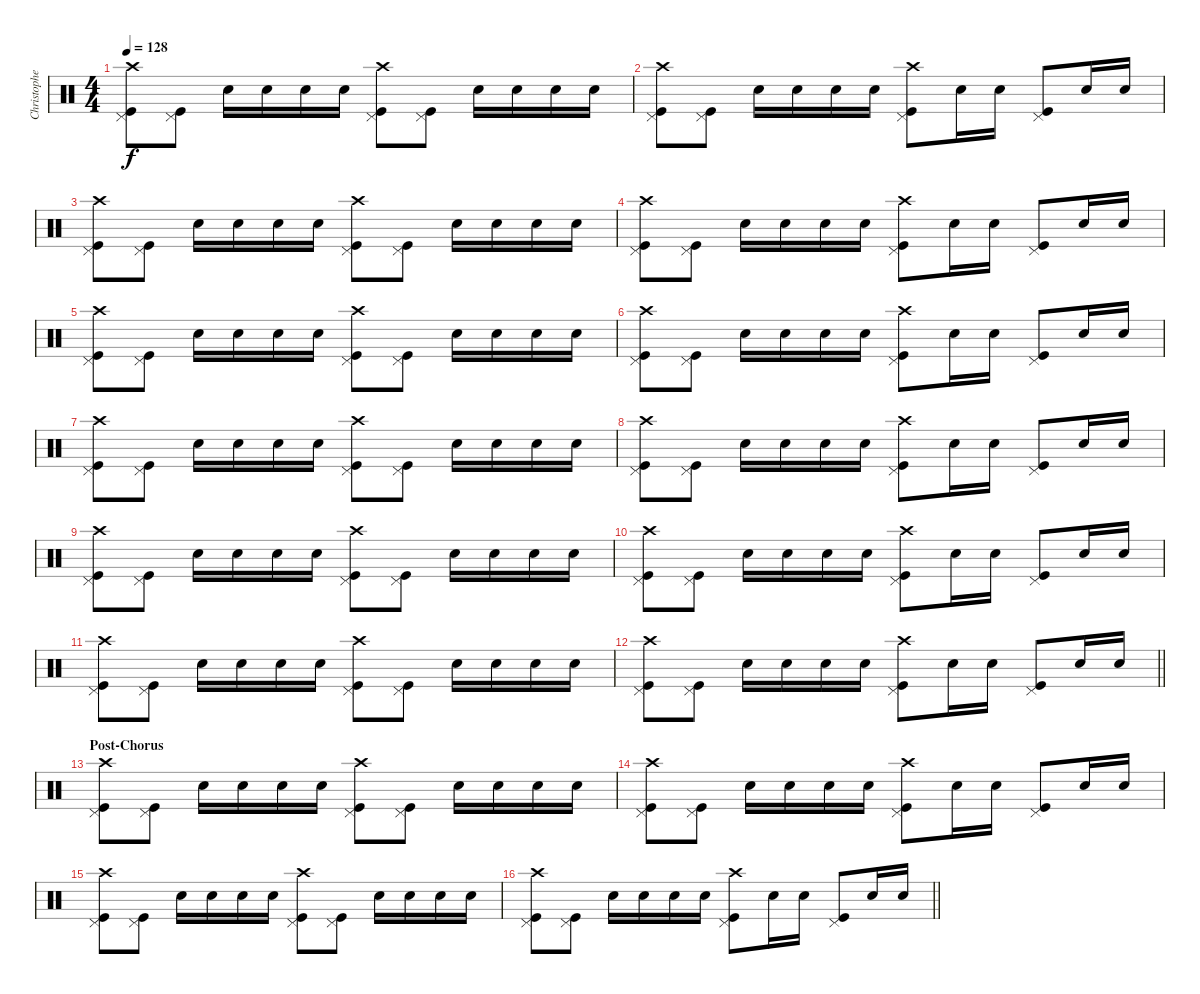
\track ("Christopher - Drums" "Christophe") {instrument percussion}
\staff {score}
\articulation defaults
\ts (4 4)
\tempo 128
\clef neutral
\ks c
("Crash high (hit)" "Pedal Hi-Hat (hit)" "Kick (hit)").8{dy f} ("Pedal Hi-Hat (hit)" "Kick (hit)").8 "Snare (hit) 2".16 "Snare (hit) 2".16 "Snare (hit) 2".16 "Snare (hit) 2".16 ("Crash high (hit)" "Pedal Hi-Hat (hit)" "Kick (hit)").8 ("Pedal Hi-Hat (hit)" "Kick (hit)").8 "Snare (hit) 2".16 "Snare (hit) 2".16 "Snare (hit) 2".16 "Snare (hit) 2".16 |
("Crash high (hit)" "Pedal Hi-Hat (hit)" "Kick (hit)").8 ("Pedal Hi-Hat (hit)" "Kick (hit)").8 "Snare (hit) 2".16 "Snare (hit) 2".16 "Snare (hit) 2".16 "Snare (hit) 2".16 ("Crash high (hit)" "Pedal Hi-Hat (hit)" "Kick (hit)").8 "Snare (hit) 2".16 "Snare (hit) 2".16 ("Pedal Hi-Hat (hit)" "Kick (hit)").8 "Snare (hit) 2".16 "Snare (hit) 2".16 |
("Crash high (hit)" "Pedal Hi-Hat (hit)" "Kick (hit)").8 ("Pedal Hi-Hat (hit)" "Kick (hit)").8 "Snare (hit) 2".16 "Snare (hit) 2".16 "Snare (hit) 2".16 "Snare (hit) 2".16 ("Crash high (hit)" "Pedal Hi-Hat (hit)" "Kick (hit)").8 ("Pedal Hi-Hat (hit)" "Kick (hit)").8 "Snare (hit) 2".16 "Snare (hit) 2".16 "Snare (hit) 2".16 "Snare (hit) 2".16 |
("Crash high (hit)" "Pedal Hi-Hat (hit)" "Kick (hit)").8 ("Pedal Hi-Hat (hit)" "Kick (hit)").8 "Snare (hit) 2".16 "Snare (hit) 2".16 "Snare (hit) 2".16 "Snare (hit) 2".16 ("Crash high (hit)" "Pedal Hi-Hat (hit)" "Kick (hit)").8 "Snare (hit) 2".16 "Snare (hit) 2".16 ("Pedal Hi-Hat (hit)" "Kick (hit)").8 "Snare (hit) 2".16 "Snare (hit) 2".16 |
("Crash high (hit)" "Pedal Hi-Hat (hit)" "Kick (hit)").8 ("Pedal Hi-Hat (hit)" "Kick (hit)").8 "Snare (hit) 2".16 "Snare (hit) 2".16 "Snare (hit) 2".16 "Snare (hit) 2".16 ("Crash high (hit)" "Pedal Hi-Hat (hit)" "Kick (hit)").8 ("Pedal Hi-Hat (hit)" "Kick (hit)").8 "Snare (hit) 2".16 "Snare (hit) 2".16 "Snare (hit) 2".16 "Snare (hit) 2".16 |
("Crash high (hit)" "Pedal Hi-Hat (hit)" "Kick (hit)").8 ("Pedal Hi-Hat (hit)" "Kick (hit)").8 "Snare (hit) 2".16 "Snare (hit) 2".16 "Snare (hit) 2".16 "Snare (hit) 2".16 ("Crash high (hit)" "Pedal Hi-Hat (hit)" "Kick (hit)").8 "Snare (hit) 2".16 "Snare (hit) 2".16 ("Pedal Hi-Hat (hit)" "Kick (hit)").8 "Snare (hit) 2".16 "Snare (hit) 2".16 |
("Crash high (hit)" "Pedal Hi-Hat (hit)" "Kick (hit)").8 ("Pedal Hi-Hat (hit)" "Kick (hit)").8 "Snare (hit) 2".16 "Snare (hit) 2".16 "Snare (hit) 2".16 "Snare (hit) 2".16 ("Crash high (hit)" "Pedal Hi-Hat (hit)" "Kick (hit)").8 ("Pedal Hi-Hat (hit)" "Kick (hit)").8 "Snare (hit) 2".16 "Snare (hit) 2".16 "Snare (hit) 2".16 "Snare (hit) 2".16 |
("Crash high (hit)" "Pedal Hi-Hat (hit)" "Kick (hit)").8 ("Pedal Hi-Hat (hit)" "Kick (hit)").8 "Snare (hit) 2".16 "Snare (hit) 2".16 "Snare (hit) 2".16 "Snare (hit) 2".16 ("Crash high (hit)" "Pedal Hi-Hat (hit)" "Kick (hit)").8 "Snare (hit) 2".16 "Snare (hit) 2".16 ("Pedal Hi-Hat (hit)" "Kick (hit)").8 "Snare (hit) 2".16 "Snare (hit) 2".16 |
("Crash high (hit)" "Pedal Hi-Hat (hit)" "Kick (hit)").8 ("Pedal Hi-Hat (hit)" "Kick (hit)").8 "Snare (hit) 2".16 "Snare (hit) 2".16 "Snare (hit) 2".16 "Snare (hit) 2".16 ("Crash high (hit)" "Pedal Hi-Hat (hit)" "Kick (hit)").8 ("Pedal Hi-Hat (hit)" "Kick (hit)").8 "Snare (hit) 2".16 "Snare (hit) 2".16 "Snare (hit) 2".16 "Snare (hit) 2".16 |
("Crash high (hit)" "Pedal Hi-Hat (hit)" "Kick (hit)").8 ("Pedal Hi-Hat (hit)" "Kick (hit)").8 "Snare (hit) 2".16 "Snare (hit) 2".16 "Snare (hit) 2".16 "Snare (hit) 2".16 ("Crash high (hit)" "Pedal Hi-Hat (hit)" "Kick (hit)").8 "Snare (hit) 2".16 "Snare (hit) 2".16 ("Pedal Hi-Hat (hit)" "Kick (hit)").8 "Snare (hit) 2".16 "Snare (hit) 2".16 |
("Crash high (hit)" "Pedal Hi-Hat (hit)" "Kick (hit)").8 ("Pedal Hi-Hat (hit)" "Kick (hit)").8 "Snare (hit) 2".16 "Snare (hit) 2".16 "Snare (hit) 2".16 "Snare (hit) 2".16 ("Crash high (hit)" "Pedal Hi-Hat (hit)" "Kick (hit)").8 ("Pedal Hi-Hat (hit)" "Kick (hit)").8 "Snare (hit) 2".16 "Snare (hit) 2".16 "Snare (hit) 2".16 "Snare (hit) 2".16 |
\barLineRight lightlight
("Crash high (hit)" "Pedal Hi-Hat (hit)" "Kick (hit)").8 ("Pedal Hi-Hat (hit)" "Kick (hit)").8 "Snare (hit) 2".16 "Snare (hit) 2".16 "Snare (hit) 2".16 "Snare (hit) 2".16 ("Crash high (hit)" "Pedal Hi-Hat (hit)" "Kick (hit)").8 "Snare (hit) 2".16 "Snare (hit) 2".16 ("Pedal Hi-Hat (hit)" "Kick (hit)").8 "Snare (hit) 2".16 "Snare (hit) 2".16 |
\section ("" "Post-Chorus")
("Crash high (hit)" "Pedal Hi-Hat (hit)" "Kick (hit)").8 ("Pedal Hi-Hat (hit)" "Kick (hit)").8 "Snare (hit) 2".16 "Snare (hit) 2".16 "Snare (hit) 2".16 "Snare (hit) 2".16 ("Crash high (hit)" "Pedal Hi-Hat (hit)" "Kick (hit)").8 ("Pedal Hi-Hat (hit)" "Kick (hit)").8 "Snare (hit) 2".16 "Snare (hit) 2".16 "Snare (hit) 2".16 "Snare (hit) 2".16 |
("Crash high (hit)" "Pedal Hi-Hat (hit)" "Kick (hit)").8 ("Pedal Hi-Hat (hit)" "Kick (hit)").8 "Snare (hit) 2".16 "Snare (hit) 2".16 "Snare (hit) 2".16 "Snare (hit) 2".16 ("Crash high (hit)" "Pedal Hi-Hat (hit)" "Kick (hit)").8 "Snare (hit) 2".16 "Snare (hit) 2".16 ("Pedal Hi-Hat (hit)" "Kick (hit)").8 "Snare (hit) 2".16 "Snare (hit) 2".16 |
("Crash high (hit)" "Pedal Hi-Hat (hit)" "Kick (hit)").8 ("Pedal Hi-Hat (hit)" "Kick (hit)").8 "Snare (hit) 2".16 "Snare (hit) 2".16 "Snare (hit) 2".16 "Snare (hit) 2".16 ("Crash high (hit)" "Pedal Hi-Hat (hit)" "Kick (hit)").8 ("Pedal Hi-Hat (hit)" "Kick (hit)").8 "Snare (hit) 2".16 "Snare (hit) 2".16 "Snare (hit) 2".16 "Snare (hit) 2".16 |
\barLineRight lightlight
("Crash high (hit)" "Pedal Hi-Hat (hit)" "Kick (hit)").8 ("Pedal Hi-Hat (hit)" "Kick (hit)").8 "Snare (hit) 2".16 "Snare (hit) 2".16 "Snare (hit) 2".16 "Snare (hit) 2".16 ("Crash high (hit)" "Pedal Hi-Hat (hit)" "Kick (hit)").8 "Snare (hit) 2".16 "Snare (hit) 2".16 ("Pedal Hi-Hat (hit)" "Kick (hit)").8 "Snare (hit) 2".16 "Snare (hit) 2".16
